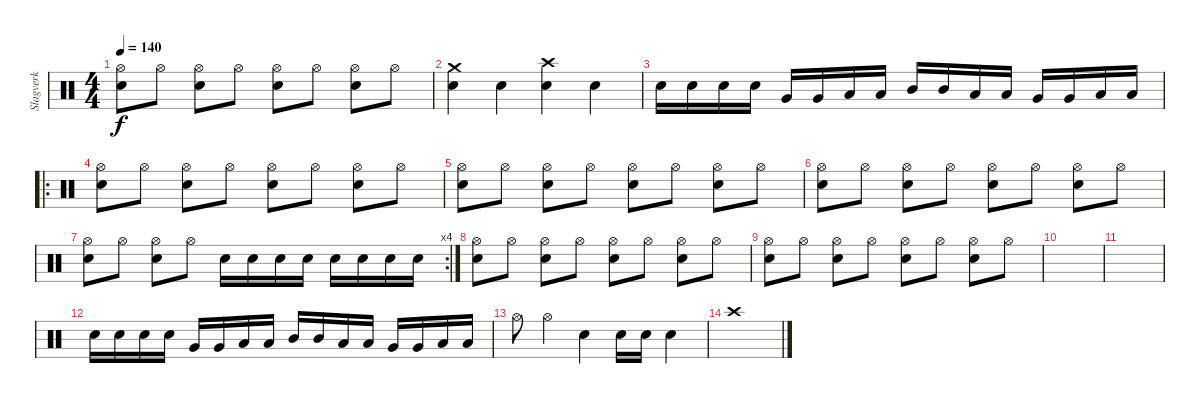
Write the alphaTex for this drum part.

\track ("Slagverk" "Slagverk") {instrument percussion}
\staff {score}
\articulation defaults
\ts (4 4)
\tempo 140
\clef neutral
\ks c
("Hi-Hat (open)" "Snare (hit) 2").8{dy f} "Hi-Hat (open)".8 ("Hi-Hat (open)" "Snare (hit) 2").8 "Hi-Hat (open)".8 ("Hi-Hat (open)" "Snare (hit) 2").8 "Hi-Hat (open)".8 ("Hi-Hat (open)" "Snare (hit) 2").8 "Hi-Hat (open)".8 |
("Crash medium (hit)" "Snare (hit) 2").4 "Snare (hit) 2".4 ("Crash high (hit)" "Snare (hit) 2").4 "Snare (hit) 2".4 |
"Snare (hit) 2".16 "Snare (hit) 2".16 "Snare (hit) 2".16 "Snare (hit) 2".16 "Very Low Tom (hit)".16 "Very Low Tom (hit)".16 "Low Tom (hit)".16 "Low Tom (hit)".16 "Mid Tom (hit)".16 "Mid Tom (hit)".16 "Low Tom (hit)".16 "Low Tom (hit)".16 "Very Low Tom (hit)".16 "Very Low Tom (hit)".16 "Low Floor Tom (hit)".16 "Low Floor Tom (hit)".16 |
\ro
("Hi-Hat (open)" "Snare (hit) 2").8 "Hi-Hat (open)".8 ("Hi-Hat (open)" "Snare (hit) 2").8 "Hi-Hat (open)".8 ("Hi-Hat (open)" "Snare (hit) 2").8 "Hi-Hat (open)".8 ("Hi-Hat (open)" "Snare (hit) 2").8 "Hi-Hat (open)".8 |
("Hi-Hat (open)" "Snare (hit) 2").8 "Hi-Hat (open)".8 ("Hi-Hat (open)" "Snare (hit) 2").8 "Hi-Hat (open)".8 ("Hi-Hat (open)" "Snare (hit) 2").8 "Hi-Hat (open)".8 ("Hi-Hat (open)" "Snare (hit) 2").8 "Hi-Hat (open)".8 |
("Hi-Hat (open)" "Snare (hit) 2").8 "Hi-Hat (open)".8 ("Hi-Hat (open)" "Snare (hit) 2").8 "Hi-Hat (open)".8 ("Hi-Hat (open)" "Snare (hit) 2").8 "Hi-Hat (open)".8 ("Hi-Hat (open)" "Snare (hit) 2").8 "Hi-Hat (open)".8 |
\rc 4
("Hi-Hat (open)" "Snare (hit) 2").8 "Hi-Hat (open)".8 ("Hi-Hat (open)" "Snare (hit) 2").8 "Hi-Hat (open)".8 "Snare (hit) 2".16 "Snare (hit) 2".16 "Snare (hit) 2".16 "Snare (hit) 2".16 "Snare (hit) 2".16 "Snare (hit) 2".16 "Snare (hit) 2".16 "Snare (hit) 2".16 |
("Hi-Hat (open)" "Snare (hit) 2").8 "Hi-Hat (open)".8 ("Hi-Hat (open)" "Snare (hit) 2").8 "Hi-Hat (open)".8 ("Hi-Hat (open)" "Snare (hit) 2").8 "Hi-Hat (open)".8 ("Hi-Hat (open)" "Snare (hit) 2").8 "Hi-Hat (open)".8 |
("Hi-Hat (open)" "Snare (hit) 2").8 "Hi-Hat (open)".8 ("Hi-Hat (open)" "Snare (hit) 2").8 "Hi-Hat (open)".8 ("Hi-Hat (open)" "Snare (hit) 2").8 "Hi-Hat (open)".8 ("Hi-Hat (open)" "Snare (hit) 2").8 "Hi-Hat (open)".8 |
|
|
"Snare (hit) 2".16 "Snare (hit) 2".16 "Snare (hit) 2".16 "Snare (hit) 2".16 "Very Low Tom (hit)".16 "Very Low Tom (hit)".16 "Low Tom (hit)".16 "Low Tom (hit)".16 "Mid Tom (hit)".16 "Mid Tom (hit)".16 "Low Tom (hit)".16 "Low Tom (hit)".16 "Very Low Tom (hit)".16 "Very Low Tom (hit)".16 "Low Floor Tom (hit)".16 "Low Floor Tom (hit)".16 |
"Hi-Hat (open)".8 "Hi-Hat (open)".4 "Snare (hit) 2".4 "Snare (hit) 2".16 "Snare (hit) 2".16 "Snare (hit) 2".4 |
"Crash high (hit)".1
